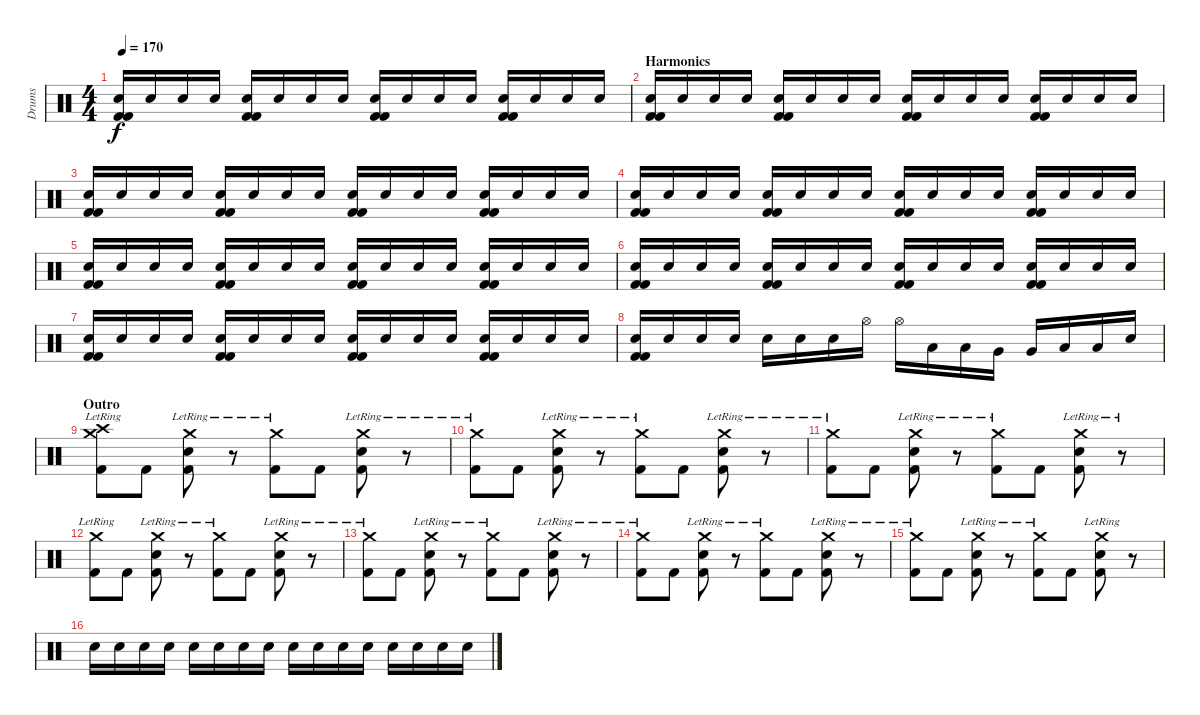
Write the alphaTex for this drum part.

\track ("Drums" "Drums") {instrument percussion}
\staff {score}
\articulation defaults
\ts (4 4)
\tempo 170
\clef neutral
\ks c
("Kick (hit) 2" "Kick (hit) 2" "Snare (hit) 2").16{dy f} "Snare (hit) 2".16 "Snare (hit) 2".16 "Snare (hit) 2".16 ("Kick (hit) 2" "Kick (hit) 2" "Snare (hit) 2").16 "Snare (hit) 2".16 "Snare (hit) 2".16 "Snare (hit) 2".16 ("Kick (hit) 2" "Kick (hit) 2" "Snare (hit) 2").16 "Snare (hit) 2".16 "Snare (hit) 2".16 "Snare (hit) 2".16 ("Kick (hit) 2" "Kick (hit) 2" "Snare (hit) 2").16 "Snare (hit) 2".16 "Snare (hit) 2".16 "Snare (hit) 2".16 |
\section ("" "Harmonics")
("Kick (hit) 2" "Kick (hit) 2" "Snare (hit) 2").16 "Snare (hit) 2".16 "Snare (hit) 2".16 "Snare (hit) 2".16 ("Kick (hit) 2" "Kick (hit) 2" "Snare (hit) 2").16 "Snare (hit) 2".16 "Snare (hit) 2".16 "Snare (hit) 2".16 ("Kick (hit) 2" "Kick (hit) 2" "Snare (hit) 2").16 "Snare (hit) 2".16 "Snare (hit) 2".16 "Snare (hit) 2".16 ("Kick (hit) 2" "Kick (hit) 2" "Snare (hit) 2").16 "Snare (hit) 2".16 "Snare (hit) 2".16 "Snare (hit) 2".16 |
("Kick (hit) 2" "Kick (hit) 2" "Snare (hit) 2").16 "Snare (hit) 2".16 "Snare (hit) 2".16 "Snare (hit) 2".16 ("Kick (hit) 2" "Kick (hit) 2" "Snare (hit) 2").16 "Snare (hit) 2".16 "Snare (hit) 2".16 "Snare (hit) 2".16 ("Kick (hit) 2" "Kick (hit) 2" "Snare (hit) 2").16 "Snare (hit) 2".16 "Snare (hit) 2".16 "Snare (hit) 2".16 ("Kick (hit) 2" "Kick (hit) 2" "Snare (hit) 2").16 "Snare (hit) 2".16 "Snare (hit) 2".16 "Snare (hit) 2".16 |
("Kick (hit) 2" "Kick (hit) 2" "Snare (hit) 2").16 "Snare (hit) 2".16 "Snare (hit) 2".16 "Snare (hit) 2".16 ("Kick (hit) 2" "Kick (hit) 2" "Snare (hit) 2").16 "Snare (hit) 2".16 "Snare (hit) 2".16 "Snare (hit) 2".16 ("Kick (hit) 2" "Kick (hit) 2" "Snare (hit) 2").16 "Snare (hit) 2".16 "Snare (hit) 2".16 "Snare (hit) 2".16 ("Kick (hit) 2" "Kick (hit) 2" "Snare (hit) 2").16 "Snare (hit) 2".16 "Snare (hit) 2".16 "Snare (hit) 2".16 |
("Kick (hit) 2" "Kick (hit) 2" "Snare (hit) 2").16 "Snare (hit) 2".16 "Snare (hit) 2".16 "Snare (hit) 2".16 ("Kick (hit) 2" "Kick (hit) 2" "Snare (hit) 2").16 "Snare (hit) 2".16 "Snare (hit) 2".16 "Snare (hit) 2".16 ("Kick (hit) 2" "Kick (hit) 2" "Snare (hit) 2").16 "Snare (hit) 2".16 "Snare (hit) 2".16 "Snare (hit) 2".16 ("Kick (hit) 2" "Kick (hit) 2" "Snare (hit) 2").16 "Snare (hit) 2".16 "Snare (hit) 2".16 "Snare (hit) 2".16 |
("Kick (hit) 2" "Kick (hit) 2" "Snare (hit) 2").16 "Snare (hit) 2".16 "Snare (hit) 2".16 "Snare (hit) 2".16 ("Kick (hit) 2" "Kick (hit) 2" "Snare (hit) 2").16 "Snare (hit) 2".16 "Snare (hit) 2".16 "Snare (hit) 2".16 ("Kick (hit) 2" "Kick (hit) 2" "Snare (hit) 2").16 "Snare (hit) 2".16 "Snare (hit) 2".16 "Snare (hit) 2".16 ("Kick (hit) 2" "Kick (hit) 2" "Snare (hit) 2").16 "Snare (hit) 2".16 "Snare (hit) 2".16 "Snare (hit) 2".16 |
("Kick (hit) 2" "Kick (hit) 2" "Snare (hit) 2").16 "Snare (hit) 2".16 "Snare (hit) 2".16 "Snare (hit) 2".16 ("Kick (hit) 2" "Kick (hit) 2" "Snare (hit) 2").16 "Snare (hit) 2".16 "Snare (hit) 2".16 "Snare (hit) 2".16 ("Kick (hit) 2" "Kick (hit) 2" "Snare (hit) 2").16 "Snare (hit) 2".16 "Snare (hit) 2".16 "Snare (hit) 2".16 ("Kick (hit) 2" "Kick (hit) 2" "Snare (hit) 2").16 "Snare (hit) 2".16 "Snare (hit) 2".16 "Snare (hit) 2".16 |
("Kick (hit) 2" "Kick (hit) 2" "Snare (hit) 2").16 "Snare (hit) 2".16 "Snare (hit) 2".16 "Snare (hit) 2".16 "Electric Snare (hit)".16 "Electric Snare (hit)".16 "Electric Snare (hit)".16 "Hi-Hat (open)".16 "Hi-Hat (open)".16 "Low Tom (hit)".16 "Low Tom (hit)".16 "Very Low Tom (hit)".16 "Very Low Tom (hit)".16 "Low Floor Tom (hit)".16 "Low Floor Tom (hit)".16 "Electric Snare (hit)".16 |
\section ("" "Outro")
("Crash medium (hit)"{lr} "Crash high (hit)"{lr} "Kick (hit) 2").8 "Kick (hit) 2".8 ("Crash medium (hit)"{lr} "Electric Snare (hit)" "Kick (hit) 2").8 r.8 ("Crash medium (hit)"{lr} "Kick (hit) 2").8 "Kick (hit) 2".8 ("Crash medium (hit)"{lr} "Electric Snare (hit)" "Kick (hit) 2").8 r.8 |
("Crash medium (hit)"{lr} "Kick (hit) 2").8 "Kick (hit) 2".8 ("Crash medium (hit)"{lr} "Electric Snare (hit)" "Kick (hit) 2").8 r.8 ("Crash medium (hit)"{lr} "Kick (hit) 2").8 "Kick (hit) 2".8 ("Crash medium (hit)"{lr} "Electric Snare (hit)" "Kick (hit) 2").8 r.8 |
("Crash medium (hit)"{lr} "Kick (hit) 2").8 "Kick (hit) 2".8 ("Crash medium (hit)"{lr} "Electric Snare (hit)" "Kick (hit) 2").8 r.8 ("Crash medium (hit)"{lr} "Kick (hit) 2").8 "Kick (hit) 2".8 ("Crash medium (hit)"{lr} "Electric Snare (hit)" "Kick (hit) 2").8 r.8 |
("Crash medium (hit)"{lr} "Kick (hit) 2").8 "Kick (hit) 2".8 ("Crash medium (hit)"{lr} "Electric Snare (hit)" "Kick (hit) 2").8 r.8 ("Crash medium (hit)"{lr} "Kick (hit) 2").8 "Kick (hit) 2".8 ("Crash medium (hit)"{lr} "Electric Snare (hit)" "Kick (hit) 2").8 r.8 |
("Crash medium (hit)"{lr} "Kick (hit) 2").8 "Kick (hit) 2".8 ("Crash medium (hit)"{lr} "Electric Snare (hit)" "Kick (hit) 2").8 r.8 ("Crash medium (hit)"{lr} "Kick (hit) 2").8 "Kick (hit) 2".8 ("Crash medium (hit)"{lr} "Electric Snare (hit)" "Kick (hit) 2").8 r.8 |
("Crash medium (hit)"{lr} "Kick (hit) 2").8 "Kick (hit) 2".8 ("Crash medium (hit)"{lr} "Electric Snare (hit)" "Kick (hit) 2").8 r.8 ("Crash medium (hit)"{lr} "Kick (hit) 2").8 "Kick (hit) 2".8 ("Crash medium (hit)"{lr} "Electric Snare (hit)" "Kick (hit) 2").8 r.8 |
("Crash medium (hit)"{lr} "Kick (hit) 2").8 "Kick (hit) 2".8 ("Crash medium (hit)"{lr} "Electric Snare (hit)" "Kick (hit) 2").8 r.8 ("Crash medium (hit)"{lr} "Kick (hit) 2").8 "Kick (hit) 2".8 ("Crash medium (hit)"{lr} "Electric Snare (hit)" "Kick (hit) 2").8 r.8 |
"Electric Snare (hit)".16 "Electric Snare (hit)".16 "Electric Snare (hit)".16 "Electric Snare (hit)".16 "Electric Snare (hit)".16 "Electric Snare (hit)".16 "Electric Snare (hit)".16 "Electric Snare (hit)".16 "Electric Snare (hit)".16 "Electric Snare (hit)".16 "Electric Snare (hit)".16 "Electric Snare (hit)".16 "Electric Snare (hit)".16 "Electric Snare (hit)".16 "Electric Snare (hit)".16 "Electric Snare (hit)".16
